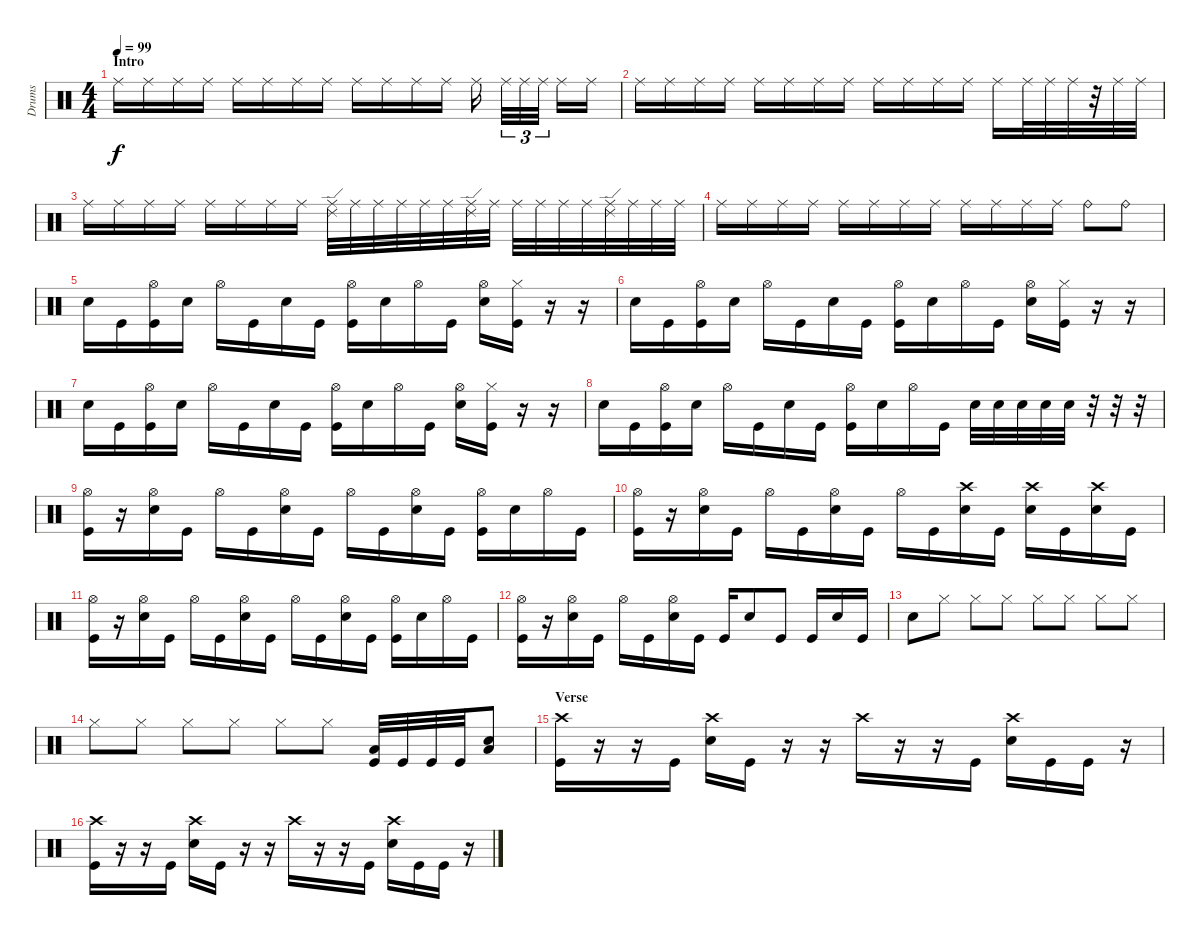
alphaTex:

\track ("Drums" "Drums") {instrument percussion}
\staff {score}
\articulation defaults
\ts (4 4)
\section ("" "Intro")
\tempo 99
\clef neutral
\ks c "Ride (middle)".16{dy f} "Ride (middle)".16 "Ride (middle)".16 "Ride (middle)".16 "Ride (middle)".16 "Ride (middle)".16 "Ride (middle)".16 "Ride (middle)".16 "Ride (middle)".16 "Ride (middle)".16 "Ride (middle)".16 "Ride (middle)".16 "Ride (middle)".16 "Ride (middle)".32{tu (3 2)} "Ride (middle)".32{tu (3 2)} "Ride (middle)".32{tu (3 2)} "Ride (middle)".16 "Ride (middle)".16
|
"Ride (middle)".16 "Ride (middle)".16 "Ride (middle)".16 "Ride (middle)".16 "Ride (middle)".16 "Ride (middle)".16 "Ride (middle)".16 "Ride (middle)".16 "Ride (middle)".16 "Ride (middle)".16 "Ride (middle)".16 "Ride (middle)".16 "Ride (middle)".16 "Ride (middle)".32 "Ride (middle)".32 "Ride (middle)".32 r.32 "Ride (middle)".32 "Ride (middle)".32 |
"Ride (middle)".16 "Ride (middle)".16 "Ride (middle)".16 "Ride (middle)".16 "Ride (middle)".16 "Ride (middle)".16 "Ride (middle)".16 "Ride (middle)".16 ("Ride (edge) 2" "Ride (middle)").32 "Ride (middle)".32 "Ride (middle)".32 "Ride (middle)".32 "Ride (middle)".32 "Ride (middle)".32 ("Ride (edge) 2" "Ride (middle)").32 "Ride (middle)".32 "Ride (middle)".32 "Ride (middle)".32 "Ride (middle)".32 "Ride (middle)".32 ("Ride (edge) 2" "Ride (middle)").32 "Ride (middle)".32 "Ride (middle)".32 "Ride (middle)".32 |
"Ride (middle)".16 "Ride (middle)".16 "Ride (middle)".16 "Ride (middle)".16 "Ride (middle)".16 "Ride (middle)".16 "Ride (middle)".16 "Ride (middle)".16 "Ride (middle)".16 "Ride (middle)".16 "Ride (middle)".16 "Ride (middle)".16 "Ride (bell)".8 "Ride (bell)".8 |
"Electric Snare (hit)".16 "Kick (hit)".16 ("Kick (hit)" "Hi-Hat (open)").16 "Electric Snare (hit)".16 "Hi-Hat (open)".16 "Kick (hit)".16 "Electric Snare (hit)".16 "Kick (hit)".16 ("Kick (hit)" "Hi-Hat (open)").16 "Electric Snare (hit)".16 "Hi-Hat (open)".16 "Kick (hit)".16 ("Hi-Hat (open)" "Electric Snare (hit)").16 ("Kick (hit)" "Hi-Hat (closed)").16 r.16 r.16 |
"Electric Snare (hit)".16 "Kick (hit)".16 ("Kick (hit)" "Hi-Hat (open)").16 "Electric Snare (hit)".16 "Hi-Hat (open)".16 "Kick (hit)".16 "Electric Snare (hit)".16 "Kick (hit)".16 ("Kick (hit)" "Hi-Hat (open)").16 "Electric Snare (hit)".16 "Hi-Hat (open)".16 "Kick (hit)".16 ("Hi-Hat (open)" "Electric Snare (hit)").16 ("Kick (hit)" "Hi-Hat (closed)").16 r.16 r.16 |
"Electric Snare (hit)".16 "Kick (hit)".16 ("Kick (hit)" "Hi-Hat (open)").16 "Electric Snare (hit)".16 "Hi-Hat (open)".16 "Kick (hit)".16 "Electric Snare (hit)".16 "Kick (hit)".16 ("Kick (hit)" "Hi-Hat (open)").16 "Electric Snare (hit)".16 "Hi-Hat (open)".16 "Kick (hit)".16 ("Hi-Hat (open)" "Electric Snare (hit)").16 ("Kick (hit)" "Hi-Hat (closed)").16 r.16 r.16 |
"Electric Snare (hit)".16 "Kick (hit)".16 ("Kick (hit)" "Hi-Hat (open)").16 "Electric Snare (hit)".16 "Hi-Hat (open)".16 "Kick (hit)".16 "Electric Snare (hit)".16 "Kick (hit)".16 ("Kick (hit)" "Hi-Hat (open)").16 "Electric Snare (hit)".16 "Hi-Hat (open)".16 "Kick (hit)".16 "Electric Snare (hit)".32 "Electric Snare (hit)".32 "Electric Snare (hit)".32 "Electric Snare (hit)".32 "Electric Snare (hit)".32 r.32 r.32 r.32 |
("Hi-Hat (open)" "Kick (hit)").16 r.16 ("Hi-Hat (open)" "Electric Snare (hit)").16 "Kick (hit)".16 "Hi-Hat (open)".16 "Kick (hit)".16 ("Hi-Hat (open)" "Electric Snare (hit)").16 "Kick (hit)".16 "Hi-Hat (open)".16 "Kick (hit)".16 ("Hi-Hat (open)" "Electric Snare (hit)").16 "Kick (hit)".16 ("Hi-Hat (open)" "Kick (hit)").16 "Electric Snare (hit)".16 "Hi-Hat (open)".16 "Kick (hit)".16 |
("Hi-Hat (open)" "Kick (hit)").16 r.16 ("Hi-Hat (open)" "Electric Snare (hit)").16 "Kick (hit)".16 "Hi-Hat (open)".16 "Kick (hit)".16 ("Hi-Hat (open)" "Electric Snare (hit)").16 "Kick (hit)".16 "Hi-Hat (open)".16 "Kick (hit)".16 ("Crash high (hit)" "Electric Snare (hit)").16 "Kick (hit)".16 ("Crash high (hit)" "Electric Snare (hit)").16 "Kick (hit)".16 ("Crash high (hit)" "Electric Snare (hit)").16 "Kick (hit)".16 |
("Hi-Hat (open)" "Kick (hit)").16 r.16 ("Hi-Hat (open)" "Electric Snare (hit)").16 "Kick (hit)".16 "Hi-Hat (open)".16 "Kick (hit)".16 ("Hi-Hat (open)" "Electric Snare (hit)").16 "Kick (hit)".16 "Hi-Hat (open)".16 "Kick (hit)".16 ("Hi-Hat (open)" "Electric Snare (hit)").16 "Kick (hit)".16 ("Hi-Hat (open)" "Kick (hit)").16 "Electric Snare (hit)".16 "Hi-Hat (open)".16 "Kick (hit)".16 |
("Hi-Hat (open)" "Kick (hit)").16 r.16 ("Hi-Hat (open)" "Electric Snare (hit)").16 "Kick (hit)".16 "Hi-Hat (open)".16 "Kick (hit)".16 ("Hi-Hat (open)" "Electric Snare (hit)").16 "Kick (hit)".16 "Kick (hit)".16 "Electric Snare (hit)".8 "Kick (hit)".8 "Kick (hit)".16 "Electric Snare (hit)".16 "Kick (hit)".16 |
"Electric Snare (hit)".8 "Hi-Hat (closed)".8{volume 7} "Hi-Hat (closed)".8 "Hi-Hat (closed)".8 "Hi-Hat (closed)".8 "Hi-Hat (closed)".8 "Hi-Hat (closed)".8 "Hi-Hat (closed)".8 |
"Hi-Hat (closed)".8 "Hi-Hat (closed)".8 "Hi-Hat (closed)".8 "Hi-Hat (closed)".8 "Hi-Hat (closed)".8 "Hi-Hat (closed)".8 ("Low Floor Tom (hit)" "Kick (hit)").32{volume 13} "Kick (hit)".32 "Kick (hit)".32 "Kick (hit)".32 ("Low Floor Tom (hit)" "Electric Snare (hit)").8 |
\section ("" "Verse")
("Kick (hit)" "Crash high (hit)").16 r.16 r.16 "Kick (hit)".16 ("Electric Snare (hit)" "Crash high (hit)").16 "Kick (hit)".16 r.16 r.16 "Crash high (hit)".16 r.16 r.16 "Kick (hit)".16 ("Electric Snare (hit)" "Crash high (hit)").16 "Kick (hit)".16 "Kick (hit)".16 r.16 |
("Kick (hit)" "Crash high (hit)").16 r.16 r.16 "Kick (hit)".16 ("Electric Snare (hit)" "Crash high (hit)").16 "Kick (hit)".16 r.16 r.16 "Crash high (hit)".16 r.16 r.16 "Kick (hit)".16 ("Electric Snare (hit)" "Crash high (hit)").16 "Kick (hit)".16 "Kick (hit)".16 r.16
